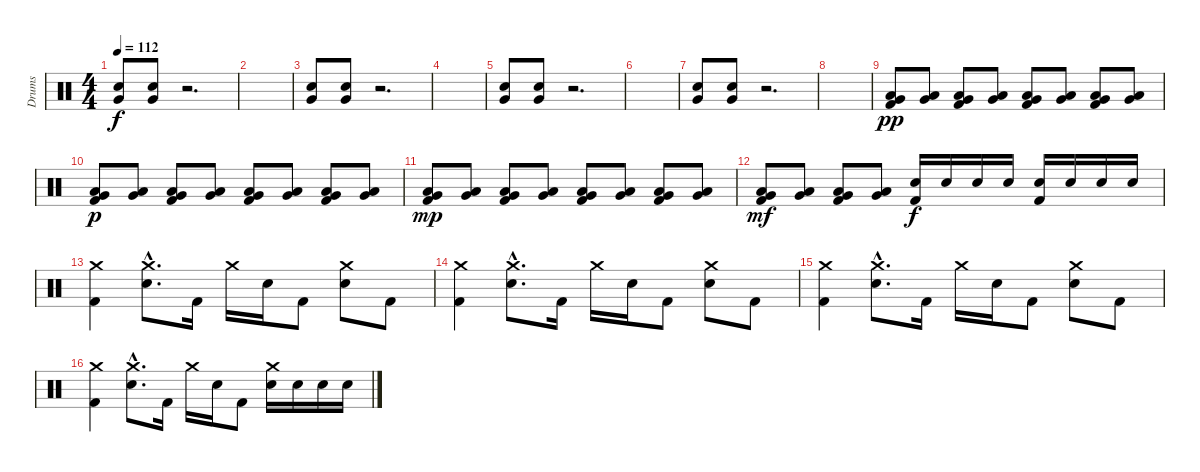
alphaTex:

\track ("Drums" "Drums") {instrument percussion}
\staff {score}
\articulation defaults
\ts (4 4)
\tempo 112
\clef neutral
\ks c
("Very Low Tom (hit)" "Snare (hit) 2").8{dy f} ("Very Low Tom (hit)" "Snare (hit) 2").8 r.2{d} |
|
("Very Low Tom (hit)" "Snare (hit) 2").8 ("Very Low Tom (hit)" "Snare (hit) 2").8 r.2{d} |
|
("Very Low Tom (hit)" "Snare (hit) 2").8 ("Very Low Tom (hit)" "Snare (hit) 2").8 r.2{d} |
|
("Very Low Tom (hit)" "Snare (hit) 2").8 ("Very Low Tom (hit)" "Snare (hit) 2").8 r.2{d} |
|
("Very Low Tom (hit)" "Low Tom (hit)" "Kick (hit) 2").8{dy pp} ("Very Low Tom (hit)" "Low Tom (hit)").8 ("Very Low Tom (hit)" "Low Tom (hit)" "Kick (hit) 2").8 ("Very Low Tom (hit)" "Low Tom (hit)").8 ("Very Low Tom (hit)" "Low Tom (hit)" "Kick (hit) 2").8 ("Very Low Tom (hit)" "Low Tom (hit)").8 ("Very Low Tom (hit)" "Low Tom (hit)" "Kick (hit) 2").8 ("Very Low Tom (hit)" "Low Tom (hit)").8 |
("Very Low Tom (hit)" "Low Tom (hit)" "Kick (hit) 2").8{dy p} ("Very Low Tom (hit)" "Low Tom (hit)").8 ("Very Low Tom (hit)" "Low Tom (hit)" "Kick (hit) 2").8 ("Very Low Tom (hit)" "Low Tom (hit)").8 ("Very Low Tom (hit)" "Low Tom (hit)" "Kick (hit) 2").8 ("Very Low Tom (hit)" "Low Tom (hit)").8 ("Very Low Tom (hit)" "Low Tom (hit)" "Kick (hit) 2").8 ("Very Low Tom (hit)" "Low Tom (hit)").8 |
("Very Low Tom (hit)" "Low Tom (hit)" "Kick (hit) 2").8{dy mp} ("Very Low Tom (hit)" "Low Tom (hit)").8 ("Very Low Tom (hit)" "Low Tom (hit)" "Kick (hit) 2").8 ("Very Low Tom (hit)" "Low Tom (hit)").8 ("Very Low Tom (hit)" "Low Tom (hit)" "Kick (hit) 2").8 ("Very Low Tom (hit)" "Low Tom (hit)").8 ("Very Low Tom (hit)" "Low Tom (hit)" "Kick (hit) 2").8 ("Very Low Tom (hit)" "Low Tom (hit)").8 |
("Very Low Tom (hit)" "Low Tom (hit)" "Kick (hit) 2").8{dy mf} ("Very Low Tom (hit)" "Low Tom (hit)").8 ("Very Low Tom (hit)" "Low Tom (hit)" "Kick (hit) 2").8 ("Very Low Tom (hit)" "Low Tom (hit)").8 ("Snare (hit) 2" "Kick (hit) 2").16{dy f} "Snare (hit) 2".16 "Snare (hit) 2".16 "Snare (hit) 2".16 ("Snare (hit) 2" "Kick (hit) 2").16 "Snare (hit) 2".16 "Snare (hit) 2".16 "Snare (hit) 2".16 |
("Crash medium (hit)" "Kick (hit) 2").4 ("Crash medium (hit)"{hac} "Snare (hit) 2"{hac}).8{d} "Kick (hit) 2".16 "Crash medium (hit)".16 "Snare (hit) 2".16 "Kick (hit) 2".8 ("Crash medium (hit)" "Snare (hit) 2").8 "Kick (hit) 2".8 |
("Crash medium (hit)" "Kick (hit) 2").4 ("Crash medium (hit)"{hac} "Snare (hit) 2"{hac}).8{d} "Kick (hit) 2".16 "Crash medium (hit)".16 "Snare (hit) 2".16 "Kick (hit) 2".8 ("Crash medium (hit)" "Snare (hit) 2").8 "Kick (hit) 2".8 |
("Crash medium (hit)" "Kick (hit) 2").4 ("Crash medium (hit)"{hac} "Snare (hit) 2"{hac}).8{d} "Kick (hit) 2".16 "Crash medium (hit)".16 "Snare (hit) 2".16 "Kick (hit) 2".8 ("Crash medium (hit)" "Snare (hit) 2").8 "Kick (hit) 2".8 |
("Crash medium (hit)" "Kick (hit) 2").4 ("Crash medium (hit)"{hac} "Snare (hit) 2"{hac}).8{d} "Kick (hit) 2".16 "Crash medium (hit)".16 "Snare (hit) 2".16 "Kick (hit) 2".8 ("Crash medium (hit)" "Snare (hit) 2").16 "Snare (hit) 2".16 "Snare (hit) 2".16 "Snare (hit) 2".16
